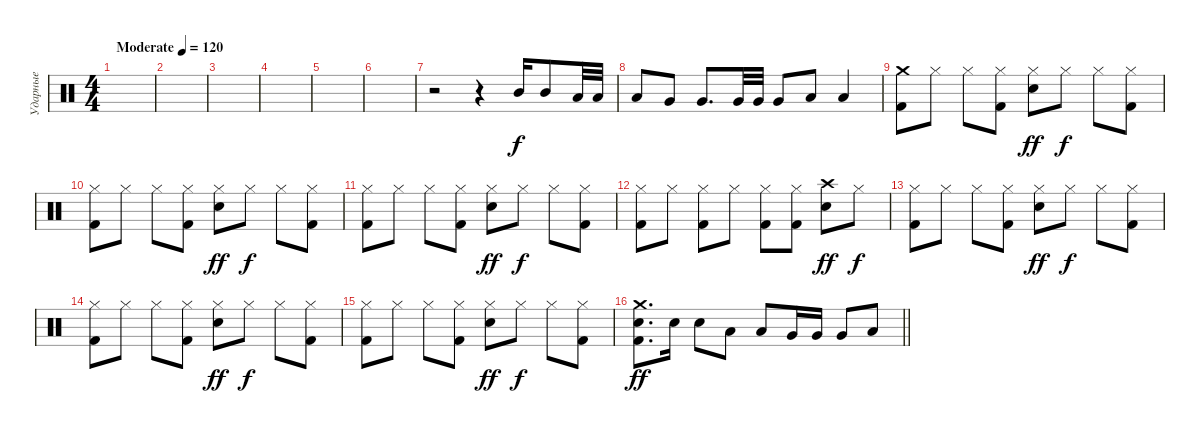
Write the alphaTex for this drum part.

\track ("Ударные" "Ударные") {instrument percussion}
\staff {score}
\articulation defaults
\ts (4 4)
\tempo (120 "Moderate")
\clef neutral
\ks c
|
|
|
|
|
|
r.2 r.4 "Mid Tom (hit)".16 "Mid Tom (hit)".8 "Low Tom (hit)".32 "Low Tom (hit)".32 |
"Low Tom (hit)".8 "Very Low Tom (hit)".8 "Very Low Tom (hit)".8{d} "Very Low Tom (hit)".32 "Very Low Tom (hit)".32 "Very Low Tom (hit)".8 "Low Floor Tom (hit)".8 "Low Floor Tom (hit)".4 |
("Crash medium (hit)" "Kick (hit) 2").8{dy f} "Hi-Hat (closed)".8 "Hi-Hat (closed)".8 ("Hi-Hat (closed)" "Kick (hit) 2").8 ("Hi-Hat (closed)" "Snare (hit) 2").8{dy ff} "Hi-Hat (closed)".8{dy f} "Hi-Hat (closed)".8 ("Hi-Hat (closed)" "Kick (hit) 2").8 |
("Hi-Hat (closed)" "Kick (hit) 2").8 "Hi-Hat (closed)".8 "Hi-Hat (closed)".8 ("Hi-Hat (closed)" "Kick (hit) 2").8 ("Hi-Hat (closed)" "Snare (hit) 2").8{dy ff} "Hi-Hat (closed)".8{dy f} "Hi-Hat (closed)".8 ("Hi-Hat (closed)" "Kick (hit) 2").8 |
("Hi-Hat (closed)" "Kick (hit) 2").8 "Hi-Hat (closed)".8 "Hi-Hat (closed)".8 ("Hi-Hat (closed)" "Kick (hit) 2").8 ("Hi-Hat (closed)" "Snare (hit) 2").8{dy ff} "Hi-Hat (closed)".8{dy f} "Hi-Hat (closed)".8 ("Hi-Hat (closed)" "Kick (hit) 2").8 |
("Hi-Hat (closed)" "Kick (hit) 2").8 "Hi-Hat (closed)".8 ("Hi-Hat (closed)" "Kick (hit) 2").8 "Hi-Hat (closed)".8 ("Hi-Hat (closed)" "Kick (hit) 2").8 ("Hi-Hat (closed)" "Kick (hit) 2").8 ("Crash high (hit)" "Snare (hit) 2").8{dy ff} "Hi-Hat (closed)".8{dy f} |
("Hi-Hat (closed)" "Kick (hit) 2").8 "Hi-Hat (closed)".8 "Hi-Hat (closed)".8 ("Hi-Hat (closed)" "Kick (hit) 2").8 ("Hi-Hat (closed)" "Snare (hit) 2").8{dy ff} "Hi-Hat (closed)".8{dy f} "Hi-Hat (closed)".8 ("Hi-Hat (closed)" "Kick (hit) 2").8 |
("Hi-Hat (closed)" "Kick (hit) 2").8 "Hi-Hat (closed)".8 "Hi-Hat (closed)".8 ("Hi-Hat (closed)" "Kick (hit) 2").8 ("Hi-Hat (closed)" "Snare (hit) 2").8{dy ff} "Hi-Hat (closed)".8{dy f} "Hi-Hat (closed)".8 ("Hi-Hat (closed)" "Kick (hit) 2").8 |
("Hi-Hat (closed)" "Kick (hit) 2").8 "Hi-Hat (closed)".8 "Hi-Hat (closed)".8 ("Hi-Hat (closed)" "Kick (hit) 2").8 ("Hi-Hat (closed)" "Snare (hit) 2").8{dy ff} "Hi-Hat (closed)".8{dy f} "Hi-Hat (closed)".8 ("Hi-Hat (closed)" "Kick (hit) 2").8 |
\barLineRight lightlight
("Crash medium (hit)" "Snare (hit) 2" "Kick (hit) 2").8{d dy ff} "Snare (hit) 2".16 "Snare (hit) 2".8 "Low Tom (hit)".8 "Low Tom (hit)".8 "Very Low Tom (hit)".16 "Very Low Tom (hit)".16 "Very Low Tom (hit)".8 "Low Floor Tom (hit)".8
